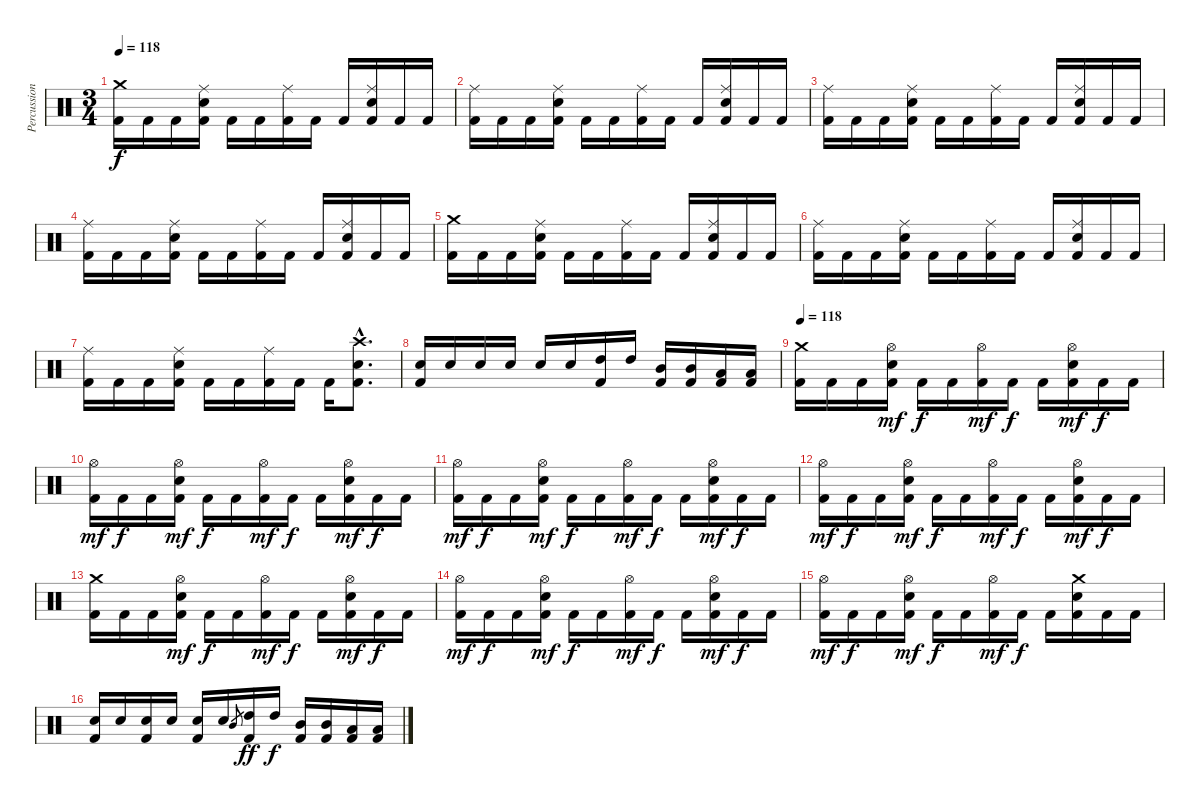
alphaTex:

\track ("Percussion" "Percussion") {instrument percussion}
\staff {score}
\articulation defaults
\ts (3 4)
\tempo 118
\clef neutral
\ks c
("Crash medium (hit)" "Kick (hit) 2").16{dy f} "Kick (hit) 2".16 "Kick (hit) 2".16 ("Ride (middle)" "Electric Snare (hit)" "Kick (hit) 2").16 "Kick (hit) 2".16 "Kick (hit) 2".16 ("Ride (middle)" "Kick (hit) 2").16 "Kick (hit) 2".16 "Kick (hit) 2".16 ("Ride (middle)" "Electric Snare (hit)" "Kick (hit) 2").16 "Kick (hit) 2".16 "Kick (hit) 2".16 |
("Ride (middle)" "Kick (hit) 2").16 "Kick (hit) 2".16 "Kick (hit) 2".16 ("Ride (middle)" "Electric Snare (hit)" "Kick (hit) 2").16 "Kick (hit) 2".16 "Kick (hit) 2".16 ("Ride (middle)" "Kick (hit) 2").16 "Kick (hit) 2".16 "Kick (hit) 2".16 ("Ride (middle)" "Electric Snare (hit)" "Kick (hit) 2").16 "Kick (hit) 2".16 "Kick (hit) 2".16 |
("Ride (middle)" "Kick (hit) 2").16 "Kick (hit) 2".16 "Kick (hit) 2".16 ("Ride (middle)" "Electric Snare (hit)" "Kick (hit) 2").16 "Kick (hit) 2".16 "Kick (hit) 2".16 ("Ride (middle)" "Kick (hit) 2").16 "Kick (hit) 2".16 "Kick (hit) 2".16 ("Ride (middle)" "Electric Snare (hit)" "Kick (hit) 2").16 "Kick (hit) 2".16 "Kick (hit) 2".16 |
("Ride (middle)" "Kick (hit) 2").16 "Kick (hit) 2".16 "Kick (hit) 2".16 ("Ride (middle)" "Electric Snare (hit)" "Kick (hit) 2").16 "Kick (hit) 2".16 "Kick (hit) 2".16 ("Ride (middle)" "Kick (hit) 2").16 "Kick (hit) 2".16 "Kick (hit) 2".16 ("Ride (middle)" "Electric Snare (hit)" "Kick (hit) 2").16 "Kick (hit) 2".16 "Kick (hit) 2".16 |
("Crash medium (hit)" "Kick (hit) 2").16 "Kick (hit) 2".16 "Kick (hit) 2".16 ("Ride (middle)" "Electric Snare (hit)" "Kick (hit) 2").16 "Kick (hit) 2".16 "Kick (hit) 2".16 ("Ride (middle)" "Kick (hit) 2").16 "Kick (hit) 2".16 "Kick (hit) 2".16 ("Ride (middle)" "Electric Snare (hit)" "Kick (hit) 2").16 "Kick (hit) 2".16 "Kick (hit) 2".16 |
("Ride (middle)" "Kick (hit) 2").16 "Kick (hit) 2".16 "Kick (hit) 2".16 ("Ride (middle)" "Electric Snare (hit)" "Kick (hit) 2").16 "Kick (hit) 2".16 "Kick (hit) 2".16 ("Ride (middle)" "Kick (hit) 2").16 "Kick (hit) 2".16 "Kick (hit) 2".16 ("Ride (middle)" "Electric Snare (hit)" "Kick (hit) 2").16 "Kick (hit) 2".16 "Kick (hit) 2".16 |
("Ride (middle)" "Kick (hit) 2").16 "Kick (hit) 2".16 "Kick (hit) 2".16 ("Ride (middle)" "Electric Snare (hit)" "Kick (hit) 2").16 "Kick (hit) 2".16 "Kick (hit) 2".16 ("Ride (middle)" "Kick (hit) 2").16 "Kick (hit) 2".16 "Kick (hit) 2".16 ("Crash high (hit)"{hac} "Electric Snare (hit)"{hac} "Kick (hit) 2"{hac}).8{d} |
("Electric Snare (hit)" "Kick (hit) 2").16 "Electric Snare (hit)".16 "Electric Snare (hit)".16 "Electric Snare (hit)".16 "Electric Snare (hit)".16 "Electric Snare (hit)".16 ("High Tom (hit)" "Kick (hit) 2").16 "High Tom (hit)".16 ("Mid Tom (hit)" "Kick (hit) 2").16 ("Mid Tom (hit)" "Kick (hit) 2").16 ("Low Tom (hit)" "Kick (hit) 2").16 ("Low Tom (hit)" "Kick (hit) 2").16 |
\tempo 118
("Crash medium (hit)" "Kick (hit) 2").16 "Kick (hit) 2".16 "Kick (hit) 2".16 ("Hi-Hat (open)" "Electric Snare (hit)" "Kick (hit) 2").16{dy mf} "Kick (hit) 2".16{dy f} "Kick (hit) 2".16 ("Hi-Hat (open)" "Kick (hit) 2").16{dy mf} "Kick (hit) 2".16{dy f} "Kick (hit) 2".16 ("Hi-Hat (open)" "Electric Snare (hit)" "Kick (hit) 2").16{dy mf} "Kick (hit) 2".16{dy f} "Kick (hit) 2".16 |
("Hi-Hat (open)" "Kick (hit) 2").16{dy mf} "Kick (hit) 2".16{dy f} "Kick (hit) 2".16 ("Hi-Hat (open)" "Electric Snare (hit)" "Kick (hit) 2").16{dy mf} "Kick (hit) 2".16{dy f} "Kick (hit) 2".16 ("Hi-Hat (open)" "Kick (hit) 2").16{dy mf} "Kick (hit) 2".16{dy f} "Kick (hit) 2".16 ("Hi-Hat (open)" "Electric Snare (hit)" "Kick (hit) 2").16{dy mf} "Kick (hit) 2".16{dy f} "Kick (hit) 2".16 |
("Hi-Hat (open)" "Kick (hit) 2").16{dy mf} "Kick (hit) 2".16{dy f} "Kick (hit) 2".16 ("Hi-Hat (open)" "Electric Snare (hit)" "Kick (hit) 2").16{dy mf} "Kick (hit) 2".16{dy f} "Kick (hit) 2".16 ("Hi-Hat (open)" "Kick (hit) 2").16{dy mf} "Kick (hit) 2".16{dy f} "Kick (hit) 2".16 ("Hi-Hat (open)" "Electric Snare (hit)" "Kick (hit) 2").16{dy mf} "Kick (hit) 2".16{dy f} "Kick (hit) 2".16 |
("Hi-Hat (open)" "Kick (hit) 2").16{dy mf} "Kick (hit) 2".16{dy f} "Kick (hit) 2".16 ("Hi-Hat (open)" "Electric Snare (hit)" "Kick (hit) 2").16{dy mf} "Kick (hit) 2".16{dy f} "Kick (hit) 2".16 ("Hi-Hat (open)" "Kick (hit) 2").16{dy mf} "Kick (hit) 2".16{dy f} "Kick (hit) 2".16 ("Hi-Hat (open)" "Electric Snare (hit)" "Kick (hit) 2").16{dy mf} "Kick (hit) 2".16{dy f} "Kick (hit) 2".16 |
("Crash medium (hit)" "Kick (hit) 2").16 "Kick (hit) 2".16 "Kick (hit) 2".16 ("Hi-Hat (open)" "Electric Snare (hit)" "Kick (hit) 2").16{dy mf} "Kick (hit) 2".16{dy f} "Kick (hit) 2".16 ("Hi-Hat (open)" "Kick (hit) 2").16{dy mf} "Kick (hit) 2".16{dy f} "Kick (hit) 2".16 ("Hi-Hat (open)" "Electric Snare (hit)" "Kick (hit) 2").16{dy mf} "Kick (hit) 2".16{dy f} "Kick (hit) 2".16 |
("Hi-Hat (open)" "Kick (hit) 2").16{dy mf} "Kick (hit) 2".16{dy f} "Kick (hit) 2".16 ("Hi-Hat (open)" "Electric Snare (hit)" "Kick (hit) 2").16{dy mf} "Kick (hit) 2".16{dy f} "Kick (hit) 2".16 ("Hi-Hat (open)" "Kick (hit) 2").16{dy mf} "Kick (hit) 2".16{dy f} "Kick (hit) 2".16 ("Hi-Hat (open)" "Electric Snare (hit)" "Kick (hit) 2").16{dy mf} "Kick (hit) 2".16{dy f} "Kick (hit) 2".16 |
("Hi-Hat (open)" "Kick (hit) 2").16{dy mf} "Kick (hit) 2".16{dy f} "Kick (hit) 2".16 ("Hi-Hat (open)" "Electric Snare (hit)" "Kick (hit) 2").16{dy mf} "Kick (hit) 2".16{dy f} "Kick (hit) 2".16 ("Hi-Hat (open)" "Kick (hit) 2").16{dy mf} "Kick (hit) 2".16{dy f} "Kick (hit) 2".16 ("Crash medium (hit)" "Electric Snare (hit)" "Kick (hit) 2").16 "Kick (hit) 2".16 "Kick (hit) 2".16 |
("Electric Snare (hit)" "Kick (hit) 2").16 "Electric Snare (hit)".16 ("Electric Snare (hit)" "Kick (hit) 2").16 "Electric Snare (hit)".16 ("Electric Snare (hit)" "Kick (hit) 2").16 "Electric Snare (hit)".16 "Mid Tom (hit)".8{gr} ("High Tom (hit)" "Kick (hit) 2").16{dy ff} "High Tom (hit)".16{dy f} ("Mid Tom (hit)" "Kick (hit) 2").16 ("Mid Tom (hit)" "Kick (hit) 2").16 ("Low Tom (hit)" "Kick (hit) 2").16 ("Low Tom (hit)" "Kick (hit) 2").16
